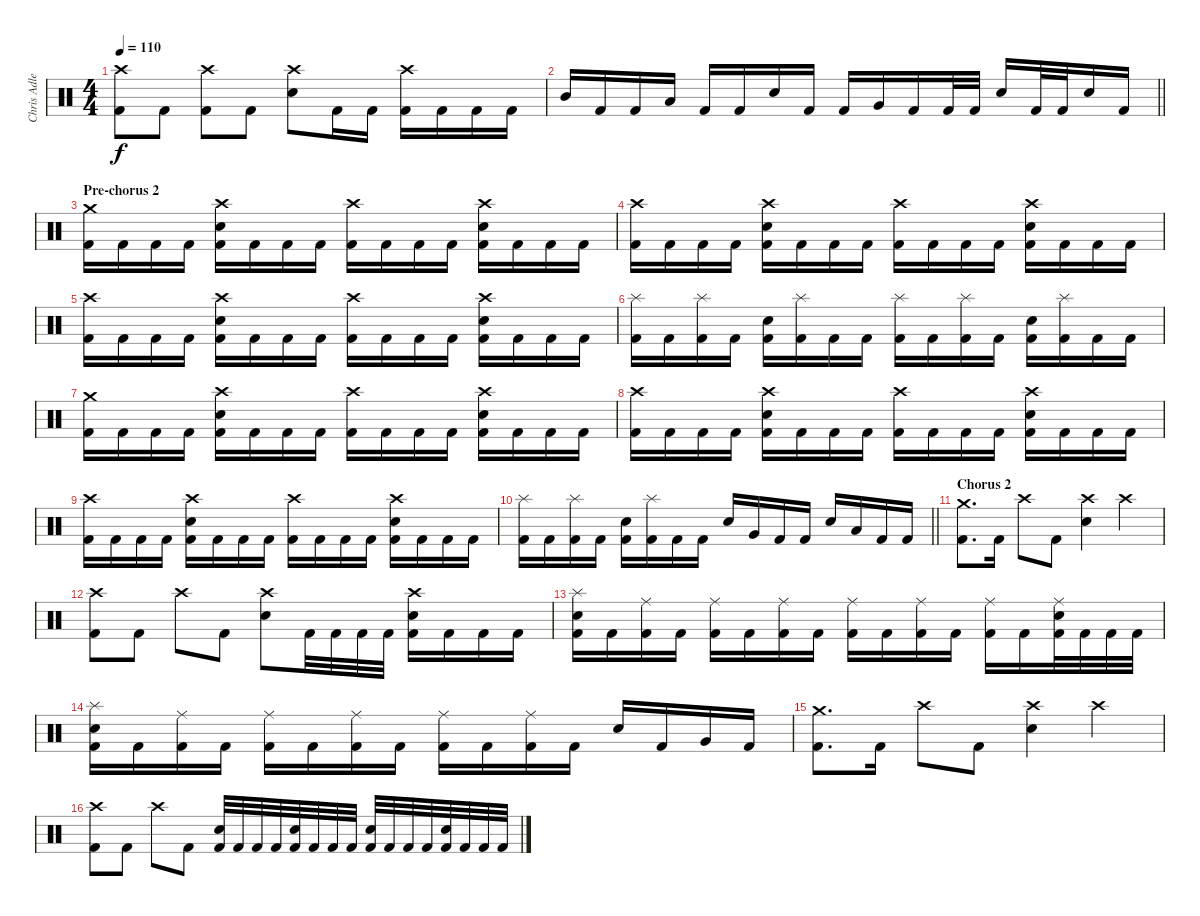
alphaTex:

\track ("Chris Adler" "Chris Adle") {instrument percussion}
\staff {score}
\articulation defaults
\ts (4 4)
\tempo 110
\clef neutral
\ks c
("Crash high (hit)" "Kick (hit) 2").8{dy f} "Kick (hit) 2".8 ("Crash high (hit)" "Kick (hit) 2").8 "Kick (hit) 2".8 ("Crash high (hit)" "Electric Snare (hit)").8 "Kick (hit) 2".16 "Kick (hit) 2".16 ("Crash high (hit)" "Kick (hit) 2").16 "Kick (hit) 2".16 "Kick (hit) 2".16 "Kick (hit) 2".16 |
\barLineRight lightlight "Mid Tom (hit)".16 "Kick (hit) 2".16 "Kick (hit) 2".16 "Low Tom (hit)".16 "Kick (hit) 2".16 "Kick (hit) 2".16 "Electric Snare (hit)".16 "Kick (hit) 2".16 "Kick (hit) 2".16 "Very Low Tom (hit)".16 "Kick (hit) 2".16 "Kick (hit) 2".32 "Kick (hit) 2".32 "Electric Snare (hit)".16 "Kick (hit) 2".32 "Kick (hit) 2".32 "Electric Snare (hit)".16 "Kick (hit) 2".16
|
\section ("" "Pre-chorus 2")
("Crash medium (hit)" "Kick (hit) 2").16 "Kick (hit) 2".16 "Kick (hit) 2".16 "Kick (hit) 2".16 ("Crash high (hit)" "Electric Snare (hit)" "Kick (hit) 2").16 "Kick (hit) 2".16 "Kick (hit) 2".16 "Kick (hit) 2".16 ("Crash high (hit)" "Kick (hit) 2").16 "Kick (hit) 2".16 "Kick (hit) 2".16 "Kick (hit) 2".16 ("Crash high (hit)" "Electric Snare (hit)" "Kick (hit) 2").16 "Kick (hit) 2".16 "Kick (hit) 2".16 "Kick (hit) 2".16 |
("Crash high (hit)" "Kick (hit) 2").16 "Kick (hit) 2".16 "Kick (hit) 2".16 "Kick (hit) 2".16 ("Crash high (hit)" "Electric Snare (hit)" "Kick (hit) 2").16 "Kick (hit) 2".16 "Kick (hit) 2".16 "Kick (hit) 2".16 ("Crash high (hit)" "Kick (hit) 2").16 "Kick (hit) 2".16 "Kick (hit) 2".16 "Kick (hit) 2".16 ("Crash high (hit)" "Electric Snare (hit)" "Kick (hit) 2").16 "Kick (hit) 2".16 "Kick (hit) 2".16 "Kick (hit) 2".16 |
("Crash high (hit)" "Kick (hit) 2").16 "Kick (hit) 2".16 "Kick (hit) 2".16 "Kick (hit) 2".16 ("Crash high (hit)" "Electric Snare (hit)" "Kick (hit) 2").16 "Kick (hit) 2".16 "Kick (hit) 2".16 "Kick (hit) 2".16 ("Crash high (hit)" "Kick (hit) 2").16 "Kick (hit) 2".16 "Kick (hit) 2".16 "Kick (hit) 2".16 ("Crash high (hit)" "Electric Snare (hit)" "Kick (hit) 2").16 "Kick (hit) 2".16 "Kick (hit) 2".16 "Kick (hit) 2".16 |
("Splash (hit)" "Kick (hit) 2").16 "Kick (hit) 2".16 ("Splash (hit)" "Kick (hit) 2").16 "Kick (hit) 2".16 ("Electric Snare (hit)" "Kick (hit) 2").16 ("Splash (hit)" "Kick (hit) 2").16 "Kick (hit) 2".16 "Kick (hit) 2".16 ("Splash (hit)" "Kick (hit) 2").16 "Kick (hit) 2".16 ("Splash (hit)" "Kick (hit) 2").16 "Kick (hit) 2".16 ("Electric Snare (hit)" "Kick (hit) 2").16 ("Splash (hit)" "Kick (hit) 2").16 "Kick (hit) 2".16 "Kick (hit) 2".16 |
("Crash medium (hit)" "Kick (hit) 2").16 "Kick (hit) 2".16 "Kick (hit) 2".16 "Kick (hit) 2".16 ("Crash high (hit)" "Electric Snare (hit)" "Kick (hit) 2").16 "Kick (hit) 2".16 "Kick (hit) 2".16 "Kick (hit) 2".16 ("Crash high (hit)" "Kick (hit) 2").16 "Kick (hit) 2".16 "Kick (hit) 2".16 "Kick (hit) 2".16 ("Crash high (hit)" "Electric Snare (hit)" "Kick (hit) 2").16 "Kick (hit) 2".16 "Kick (hit) 2".16 "Kick (hit) 2".16 |
("Crash high (hit)" "Kick (hit) 2").16 "Kick (hit) 2".16 "Kick (hit) 2".16 "Kick (hit) 2".16 ("Crash high (hit)" "Electric Snare (hit)" "Kick (hit) 2").16 "Kick (hit) 2".16 "Kick (hit) 2".16 "Kick (hit) 2".16 ("Crash high (hit)" "Kick (hit) 2").16 "Kick (hit) 2".16 "Kick (hit) 2".16 "Kick (hit) 2".16 ("Crash high (hit)" "Electric Snare (hit)" "Kick (hit) 2").16 "Kick (hit) 2".16 "Kick (hit) 2".16 "Kick (hit) 2".16 |
("Crash high (hit)" "Kick (hit) 2").16 "Kick (hit) 2".16 "Kick (hit) 2".16 "Kick (hit) 2".16 ("Crash high (hit)" "Electric Snare (hit)" "Kick (hit) 2").16 "Kick (hit) 2".16 "Kick (hit) 2".16 "Kick (hit) 2".16 ("Crash high (hit)" "Kick (hit) 2").16 "Kick (hit) 2".16 "Kick (hit) 2".16 "Kick (hit) 2".16 ("Crash high (hit)" "Electric Snare (hit)" "Kick (hit) 2").16 "Kick (hit) 2".16 "Kick (hit) 2".16 "Kick (hit) 2".16 |
\barLineRight lightlight
("Splash (hit)" "Kick (hit) 2").16 "Kick (hit) 2".16 ("Splash (hit)" "Kick (hit) 2").16 "Kick (hit) 2".16 ("Electric Snare (hit)" "Kick (hit) 2").16 ("Splash (hit)" "Kick (hit) 2").16 "Kick (hit) 2".16 "Kick (hit) 2".16 "Electric Snare (hit)".16 "Very Low Tom (hit)".16 "Kick (hit) 2".16 "Kick (hit) 2".16 "Electric Snare (hit)".16 "Low Floor Tom (hit)".16 "Kick (hit) 2".16 "Kick (hit) 2".16 |
\section ("" "Chorus 2")
("Crash medium (hit)" "Kick (hit) 2").8{d} "Kick (hit) 2".16 "Crash high (hit)".8 "Kick (hit) 2".8 ("Crash high (hit)" "Electric Snare (hit)").4 "Crash high (hit)".4 |
("Crash high (hit)" "Kick (hit) 2").8 "Kick (hit) 2".8 "Crash high (hit)".8 "Kick (hit) 2".8 ("Crash high (hit)" "Electric Snare (hit)").8 "Kick (hit) 2".32 "Kick (hit) 2".32 "Kick (hit) 2".32 "Kick (hit) 2".32 ("Crash high (hit)" "Electric Snare (hit)" "Kick (hit) 2").16 "Kick (hit) 2".16 "Kick (hit) 2".16 "Kick (hit) 2".16 |
("Splash (hit)" "Electric Snare (hit)" "Kick (hit) 2").16 "Kick (hit) 2".16 ("Ride (middle)" "Kick (hit) 2").16 "Kick (hit) 2".16 ("Ride (middle)" "Kick (hit) 2").16 "Kick (hit) 2".16 ("Ride (middle)" "Kick (hit) 2").16 "Kick (hit) 2".16 ("Ride (middle)" "Kick (hit) 2").16 "Kick (hit) 2".16 ("Ride (middle)" "Kick (hit) 2").16 "Kick (hit) 2".16 ("Ride (middle)" "Kick (hit) 2").16 "Kick (hit) 2".16 ("Ride (middle)" "Electric Snare (hit)" "Kick (hit) 2").32 "Kick (hit) 2".32 "Kick (hit) 2".32 "Kick (hit) 2".32 |
("Splash (hit)" "Electric Snare (hit)" "Kick (hit) 2").16 "Kick (hit) 2".16 ("Ride (middle)" "Kick (hit) 2").16 "Kick (hit) 2".16 ("Ride (middle)" "Kick (hit) 2").16 "Kick (hit) 2".16 ("Ride (middle)" "Kick (hit) 2").16 "Kick (hit) 2".16 ("Ride (middle)" "Kick (hit) 2").16 "Kick (hit) 2".16 ("Ride (middle)" "Kick (hit) 2").16 "Kick (hit) 2".16 "Electric Snare (hit)".16 "Kick (hit) 2".16 "Very Low Tom (hit)".16 "Kick (hit) 2".16 |
("Crash medium (hit)" "Kick (hit) 2").8{d} "Kick (hit) 2".16 "Crash high (hit)".8 "Kick (hit) 2".8 ("Crash high (hit)" "Electric Snare (hit)").4 "Crash high (hit)".4 |
("Crash high (hit)" "Kick (hit) 2").8 "Kick (hit) 2".8 "Crash high (hit)".8 "Kick (hit) 2".8 ("Electric Snare (hit)" "Kick (hit) 2").32 "Kick (hit) 2".32 "Kick (hit) 2".32 "Kick (hit) 2".32 ("Electric Snare (hit)" "Kick (hit) 2").32 "Kick (hit) 2".32 "Kick (hit) 2".32 "Kick (hit) 2".32 ("Electric Snare (hit)" "Kick (hit) 2").32 "Kick (hit) 2".32 "Kick (hit) 2".32 "Kick (hit) 2".32 ("Electric Snare (hit)" "Kick (hit) 2").32 "Kick (hit) 2".32 "Kick (hit) 2".32 "Kick (hit) 2".32
